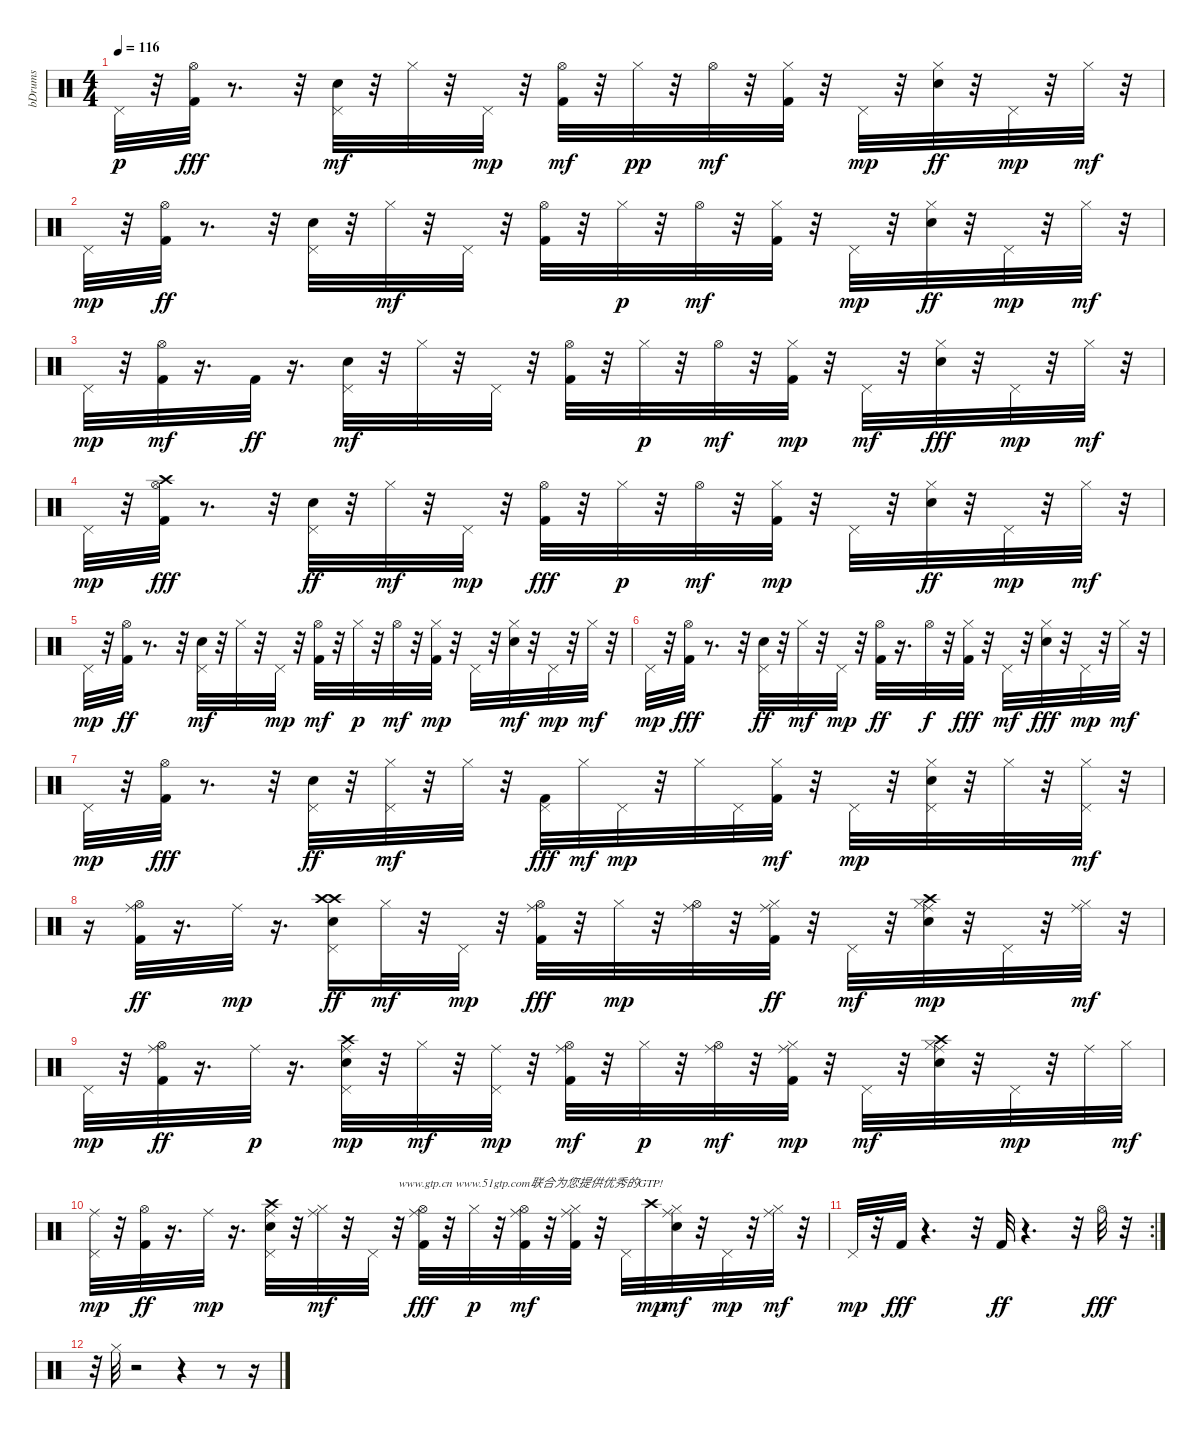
\track ("bDrums" "bDrums") {instrument percussion}
\staff {score}
\articulation defaults
\ts (4 4)
\tempo 116
\clef neutral
\ks c "Pedal Hi-Hat (hit)".32{dy p}
r.32 ("Hi-Hat (open)" "Kick (hit) 2").32{dy fff} r.8{d} r.32 ("Snare (hit) 2" "Pedal Hi-Hat (hit)").32{dy mf} r.32 "Hi-Hat (closed)".32 r.32 "Pedal Hi-Hat (hit)".32{dy mp} r.32 ("Kick (hit) 2" "Hi-Hat (open)").32{dy mf} r.32 "Hi-Hat (closed)".32{dy pp} r.32 "Hi-Hat (open)".32{dy mf} r.32 ("Kick (hit) 2" "Hi-Hat (closed)").32 r.32 "Pedal Hi-Hat (hit)".32{dy mp} r.32 ("Hi-Hat (closed)" "Snare (hit) 2").32{dy ff} r.32 "Pedal Hi-Hat (hit)".32{dy mp} r.32 "Hi-Hat (closed)".32{dy mf} r.32 |
"Pedal Hi-Hat (hit)".32{dy mp} r.32 ("Hi-Hat (open)" "Kick (hit) 2").32{dy ff} r.8{d} r.32 ("Pedal Hi-Hat (hit)" "Snare (hit) 2").32 r.32 "Hi-Hat (closed)".32{dy mf} r.32 "Pedal Hi-Hat (hit)".32 r.32 ("Kick (hit) 2" "Hi-Hat (open)").32 r.32 "Hi-Hat (closed)".32{dy p} r.32 "Hi-Hat (open)".32{dy mf} r.32 ("Kick (hit) 2" "Hi-Hat (closed)").32 r.32 "Pedal Hi-Hat (hit)".32{dy mp} r.32 ("Hi-Hat (closed)" "Snare (hit) 2").32{dy ff} r.32 "Pedal Hi-Hat (hit)".32{dy mp} r.32 "Hi-Hat (closed)".32{dy mf} r.32 |
"Pedal Hi-Hat (hit)".32{dy mp} r.32 ("Kick (hit) 2" "Hi-Hat (open)").32{dy mf} r.16{d} "Kick (hit) 2".32{dy ff} r.16{d} ("Snare (hit) 2" "Pedal Hi-Hat (hit)").32{dy mf} r.32 "Hi-Hat (closed)".32 r.32 "Pedal Hi-Hat (hit)".32 r.32 ("Kick (hit) 2" "Hi-Hat (open)").32 r.32 "Hi-Hat (closed)".32{dy p} r.32 "Hi-Hat (open)".32{dy mf} r.32 ("Kick (hit) 2" "Hi-Hat (closed)").32{dy mp} r.32 "Pedal Hi-Hat (hit)".32{dy mf} r.32 ("Hi-Hat (closed)" "Snare (hit) 2").32{dy fff} r.32 "Pedal Hi-Hat (hit)".32{dy mp} r.32 "Hi-Hat (closed)".32{dy mf} r.32 |
"Pedal Hi-Hat (hit)".32{dy mp} r.32 ("Crash high (hit)" "Hi-Hat (open)" "Kick (hit) 2").32{dy fff} r.8{d} r.32 ("Pedal Hi-Hat (hit)" "Snare (hit) 2").32{dy ff} r.32 "Hi-Hat (closed)".32{dy mf} r.32 "Pedal Hi-Hat (hit)".32{dy mp} r.32 ("Hi-Hat (open)" "Kick (hit) 2").32{dy fff} r.32 "Hi-Hat (closed)".32{dy p} r.32 "Hi-Hat (open)".32{dy mf} r.32 ("Kick (hit) 2" "Hi-Hat (closed)").32{dy mp} r.32 "Pedal Hi-Hat (hit)".32 r.32 ("Hi-Hat (closed)" "Snare (hit) 2").32{dy ff} r.32 "Pedal Hi-Hat (hit)".32{dy mp} r.32 "Hi-Hat (closed)".32{dy mf} r.32 |
"Pedal Hi-Hat (hit)".32{dy mp} r.32 ("Hi-Hat (open)" "Kick (hit) 2").32{dy ff} r.8{d} r.32 ("Snare (hit) 2" "Pedal Hi-Hat (hit)").32{dy mf} r.32 "Hi-Hat (closed)".32 r.32 "Pedal Hi-Hat (hit)".32{dy mp} r.32 ("Kick (hit) 2" "Hi-Hat (open)").32{dy mf} r.32 "Hi-Hat (closed)".32{dy p} r.32 "Hi-Hat (open)".32{dy mf} r.32 ("Kick (hit) 2" "Hi-Hat (closed)").32{dy mp} r.32 "Pedal Hi-Hat (hit)".32 r.32 ("Snare (hit) 2" "Hi-Hat (closed)").32{dy mf} r.32 "Pedal Hi-Hat (hit)".32{dy mp} r.32 "Hi-Hat (closed)".32{dy mf} r.32 |
"Pedal Hi-Hat (hit)".32{dy mp} r.32 ("Hi-Hat (open)" "Kick (hit) 2").32{dy fff} r.8{d} r.32 ("Pedal Hi-Hat (hit)" "Snare (hit) 2").32{dy ff} r.32 "Hi-Hat (closed)".32{dy mf} r.32 "Pedal Hi-Hat (hit)".32{dy mp} r.32 ("Hi-Hat (open)" "Kick (hit) 2").32{dy ff} r.16{d} "Hi-Hat (open)".32{dy f} r.32 ("Hi-Hat (closed)" "Kick (hit) 2").32{dy fff} r.32 "Pedal Hi-Hat (hit)".32{dy mf} r.32 ("Hi-Hat (closed)" "Snare (hit) 2").32{dy fff} r.32 "Pedal Hi-Hat (hit)".32{dy mp} r.32 "Hi-Hat (closed)".32{dy mf} r.32 |
"Pedal Hi-Hat (hit)".32{dy mp} r.32 ("Hi-Hat (open)" "Kick (hit) 2").32{dy fff} r.8{d} r.32 ("Pedal Hi-Hat (hit)" "Snare (hit) 2").32{dy ff} r.32 ("Hi-Hat (closed)" "Pedal Hi-Hat (hit)").32{dy mf} r.32 "Hi-Hat (closed)".32 r.32 ("Pedal Hi-Hat (hit)" "Kick (hit) 2").32{dy fff} "Hi-Hat (closed)".32{dy mf} "Pedal Hi-Hat (hit)".32{dy mp} r.32 "Hi-Hat (closed)".32 "Pedal Hi-Hat (hit)".32 ("Kick (hit) 2" "Hi-Hat (closed)").32{dy mf} r.32 "Pedal Hi-Hat (hit)".32{dy mp} r.32 ("Hi-Hat (closed)" "Snare (hit) 2" "Pedal Hi-Hat (hit)").32 r.32 "Hi-Hat (closed)".32 r.32 ("Pedal Hi-Hat (hit)" "Hi-Hat (closed)").32{dy mf} r.32 |
r.16 ("Hi-Hat (open)" "Ride (middle)" "Kick (hit) 2").32{dy ff} r.16{d} "Ride (middle)".32{dy mp} r.16{d} ("Pedal Hi-Hat (hit)" "Crash high (hit)" "Crash high (hit)" "Snare (hit) 2").16{dy ff} "Hi-Hat (closed)".32{dy mf} r.32 "Pedal Hi-Hat (hit)".32{dy mp} r.32 ("Ride (middle)" "Hi-Hat (open)" "Kick (hit) 2").32{dy fff} r.32 "Hi-Hat (closed)".32{dy mp} r.32 ("Ride (middle)" "Hi-Hat (open)").32 r.32 ("Ride (middle)" "Hi-Hat (closed)" "Kick (hit) 2").32{dy ff} r.32 "Pedal Hi-Hat (hit)".32{dy mf} r.32 ("Ride (middle)" "Hi-Hat (closed)" "Snare (hit) 2" "Crash high (hit)").32{dy mp} r.32 "Pedal Hi-Hat (hit)".32 r.32 ("Ride (middle)" "Hi-Hat (closed)").32{dy mf} r.32 |
"Pedal Hi-Hat (hit)".32{dy mp} r.32 ("Ride (middle)" "Hi-Hat (open)" "Kick (hit) 2").32{dy ff} r.16{d} "Ride (middle)".32{dy p} r.16{d} ("Ride (middle)" "Snare (hit) 2" "Pedal Hi-Hat (hit)" "Crash high (hit)").32{dy mp} r.32 "Hi-Hat (closed)".32{dy mf} r.32 ("Ride (middle)" "Pedal Hi-Hat (hit)").32{dy mp} r.32 ("Ride (middle)" "Kick (hit) 2" "Hi-Hat (open)").32{dy mf} r.32 "Hi-Hat (closed)".32{dy p} r.32 ("Ride (middle)" "Hi-Hat (open)").32{dy mf} r.32 ("Kick (hit) 2" "Ride (middle)" "Hi-Hat (closed)").32{dy mp} r.32 "Pedal Hi-Hat (hit)".32{dy mf} r.32 ("Crash high (hit)" "Ride (middle)" "Snare (hit) 2" "Hi-Hat (closed)").32 r.32 "Pedal Hi-Hat (hit)".32{dy mp} r.32 "Ride (middle)".32 "Hi-Hat (closed)".32{dy mf} |
("Ride (middle)" "Pedal Hi-Hat (hit)").32{dy mp} r.32 ("Hi-Hat (open)" "Kick (hit) 2").32{dy ff} r.16{d} "Ride (middle)".32{dy mp} r.16{d} ("Ride (middle)" "Snare (hit) 2" "Pedal Hi-Hat (hit)" "Crash high (hit)").32 r.32 ("Ride (middle)" "Hi-Hat (closed)").32{dy mf} r.32 "Pedal Hi-Hat (hit)".32 r.32{txt "www.gtp.cn www.51gtp.com联合为您提供优秀的GTP!"} ("Ride (middle)" "Hi-Hat (open)" "Kick (hit) 2").32{dy fff} r.32 "Hi-Hat (closed)".32{dy p} r.32 ("Ride (middle)" "Kick (hit) 2" "Hi-Hat (open)").32{dy mf} r.32 ("Ride (middle)" "Kick (hit) 2" "Hi-Hat (closed)").32 r.32 "Pedal Hi-Hat (hit)".32 "Crash high (hit)".32{dy mp} ("Ride (middle)" "Snare (hit) 2" "Hi-Hat (closed)").32{dy mf} r.32 "Pedal Hi-Hat (hit)".32{dy mp} r.32 ("Ride (middle)" "Hi-Hat (closed)").32{dy mf} r.32 |
\rc 2 "Pedal Hi-Hat (hit)".32{dy mp}
r.32 "Kick (hit) 2".32{dy fff} r.4{d} r.32 "Kick (hit) 2".32{dy ff} r.4{d} r.32 "Hi-Hat (open)".32{dy fff} r.32 |
r.32 "Hi-Hat (closed)".32 r.2 r.4 r.8 r.16
